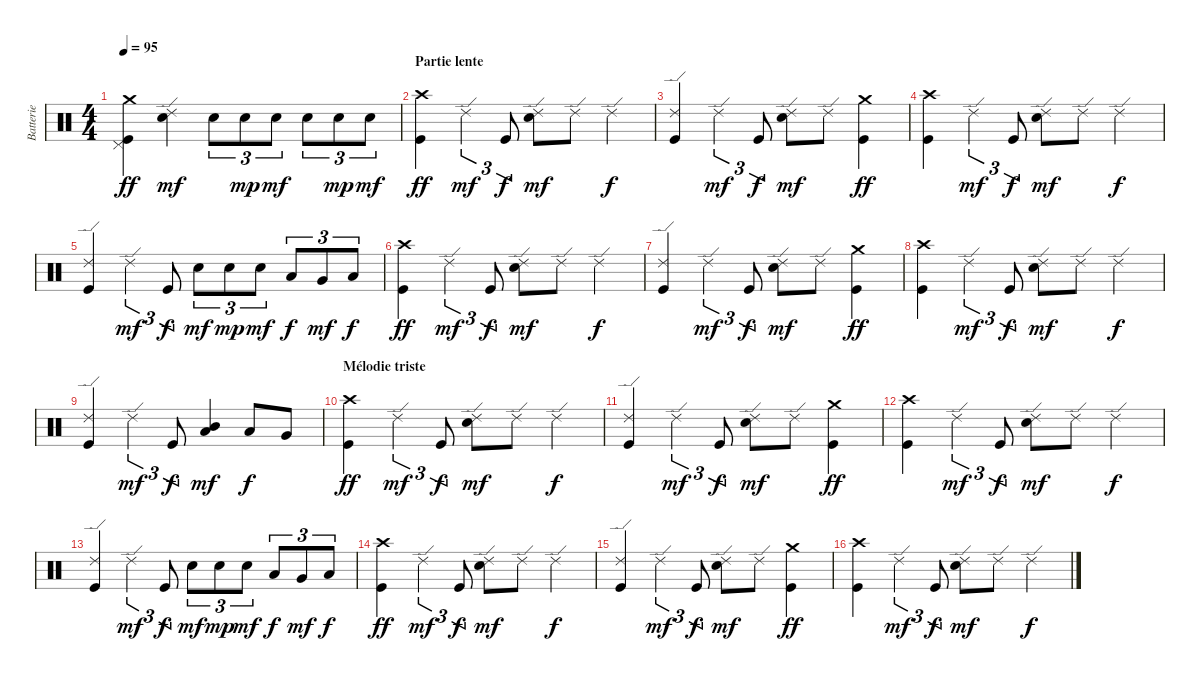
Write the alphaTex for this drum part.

\track ("Batterie" "Batterie") {instrument percussion}
\staff {score}
\articulation defaults
\ts (4 4)
\tempo 95
\clef neutral
\ks c
("Crash medium (hit)" "Pedal Hi-Hat (hit)" "Kick (hit)").4{dy ff} ("Ride (edge) 2" "Electric Snare (hit)").4{dy mf} "Electric Snare (hit)".8{tu (3 2)} "Electric Snare (hit)".8{tu (3 2) dy mp} "Electric Snare (hit)".8{tu (3 2) dy mf} "Electric Snare (hit)".8{tu (3 2)} "Electric Snare (hit)".8{tu (3 2) dy mp} "Electric Snare (hit)".8{tu (3 2) dy mf} |
\section ("" "Partie lente")
("Crash high (hit)" "Kick (hit)").4{dy ff} "Ride (edge) 2".4{tu (3 2) dy mf} "Kick (hit)".8{tu (3 2) dy f} ("Ride (edge) 2" "Electric Snare (hit)").8{dy mf} "Ride (edge) 2".8 "Ride (edge) 2".4{dy f} |
("Ride (edge) 2" "Kick (hit)").4 "Ride (edge) 2".4{tu (3 2) dy mf} "Kick (hit)".8{tu (3 2) dy f} ("Ride (edge) 2" "Electric Snare (hit)").8{dy mf} "Ride (edge) 2".8 ("Crash medium (hit)" "Kick (hit)").4{dy ff} |
("Crash high (hit)" "Kick (hit)").4 "Ride (edge) 2".4{tu (3 2) dy mf} "Kick (hit)".8{tu (3 2) dy f} ("Ride (edge) 2" "Electric Snare (hit)").8{dy mf} "Ride (edge) 2".8 "Ride (edge) 2".4{dy f} |
("Ride (edge) 2" "Kick (hit)").4 "Ride (edge) 2".4{tu (3 2) dy mf} "Kick (hit)".8{tu (3 2) dy f} "Electric Snare (hit)".8{tu (3 2) dy mf} "Electric Snare (hit)".8{tu (3 2) dy mp} "Electric Snare (hit)".8{tu (3 2) dy mf} "Low Tom (hit)".8{tu (3 2) dy f} "Very Low Tom (hit)".8{tu (3 2) dy mf} "Low Floor Tom (hit)".8{tu (3 2) dy f} |
("Crash high (hit)" "Kick (hit)").4{dy ff} "Ride (edge) 2".4{tu (3 2) dy mf} "Kick (hit)".8{tu (3 2) dy f} ("Ride (edge) 2" "Electric Snare (hit)").8{dy mf} "Ride (edge) 2".8 "Ride (edge) 2".4{dy f} |
("Ride (edge) 2" "Kick (hit)").4 "Ride (edge) 2".4{tu (3 2) dy mf} "Kick (hit)".8{tu (3 2) dy f} ("Ride (edge) 2" "Electric Snare (hit)").8{dy mf} "Ride (edge) 2".8 ("Crash medium (hit)" "Kick (hit)").4{dy ff} |
("Crash high (hit)" "Kick (hit)").4 "Ride (edge) 2".4{tu (3 2) dy mf} "Kick (hit)".8{tu (3 2) dy f} ("Ride (edge) 2" "Electric Snare (hit)").8{dy mf} "Ride (edge) 2".8 "Ride (edge) 2".4{dy f} |
("Ride (edge) 2" "Kick (hit)").4 "Ride (edge) 2".4{tu (3 2) dy mf} "Kick (hit)".8{tu (3 2) dy f} ("Mid Tom (hit)" "Low Tom (hit)").4{bd 120 dy mf} "Low Tom (hit)".8{dy f} "Very Low Tom (hit)".8 |
\section ("" "Mélodie triste")
("Crash high (hit)" "Kick (hit)").4{dy ff} "Ride (edge) 2".4{tu (3 2) dy mf} "Kick (hit)".8{tu (3 2) dy f} ("Ride (edge) 2" "Electric Snare (hit)").8{dy mf} "Ride (edge) 2".8 "Ride (edge) 2".4{dy f} |
("Ride (edge) 2" "Kick (hit)").4 "Ride (edge) 2".4{tu (3 2) dy mf} "Kick (hit)".8{tu (3 2) dy f} ("Ride (edge) 2" "Electric Snare (hit)").8{dy mf} "Ride (edge) 2".8 ("Crash medium (hit)" "Kick (hit)").4{dy ff} |
("Crash high (hit)" "Kick (hit)").4 "Ride (edge) 2".4{tu (3 2) dy mf} "Kick (hit)".8{tu (3 2) dy f} ("Ride (edge) 2" "Electric Snare (hit)").8{dy mf} "Ride (edge) 2".8 "Ride (edge) 2".4{dy f} |
("Ride (edge) 2" "Kick (hit)").4 "Ride (edge) 2".4{tu (3 2) dy mf} "Kick (hit)".8{tu (3 2) dy f} "Electric Snare (hit)".8{tu (3 2) dy mf} "Electric Snare (hit)".8{tu (3 2) dy mp} "Electric Snare (hit)".8{tu (3 2) dy mf} "Low Tom (hit)".8{tu (3 2) dy f} "Very Low Tom (hit)".8{tu (3 2) dy mf} "Low Floor Tom (hit)".8{tu (3 2) dy f} |
("Crash high (hit)" "Kick (hit)").4{dy ff} "Ride (edge) 2".4{tu (3 2) dy mf} "Kick (hit)".8{tu (3 2) dy f} ("Ride (edge) 2" "Electric Snare (hit)").8{dy mf} "Ride (edge) 2".8 "Ride (edge) 2".4{dy f} |
("Ride (edge) 2" "Kick (hit)").4 "Ride (edge) 2".4{tu (3 2) dy mf} "Kick (hit)".8{tu (3 2) dy f} ("Ride (edge) 2" "Electric Snare (hit)").8{dy mf} "Ride (edge) 2".8 ("Crash medium (hit)" "Kick (hit)").4{dy ff} |
("Crash high (hit)" "Kick (hit)").4 "Ride (edge) 2".4{tu (3 2) dy mf} "Kick (hit)".8{tu (3 2) dy f} ("Ride (edge) 2" "Electric Snare (hit)").8{dy mf} "Ride (edge) 2".8 "Ride (edge) 2".4{dy f}
